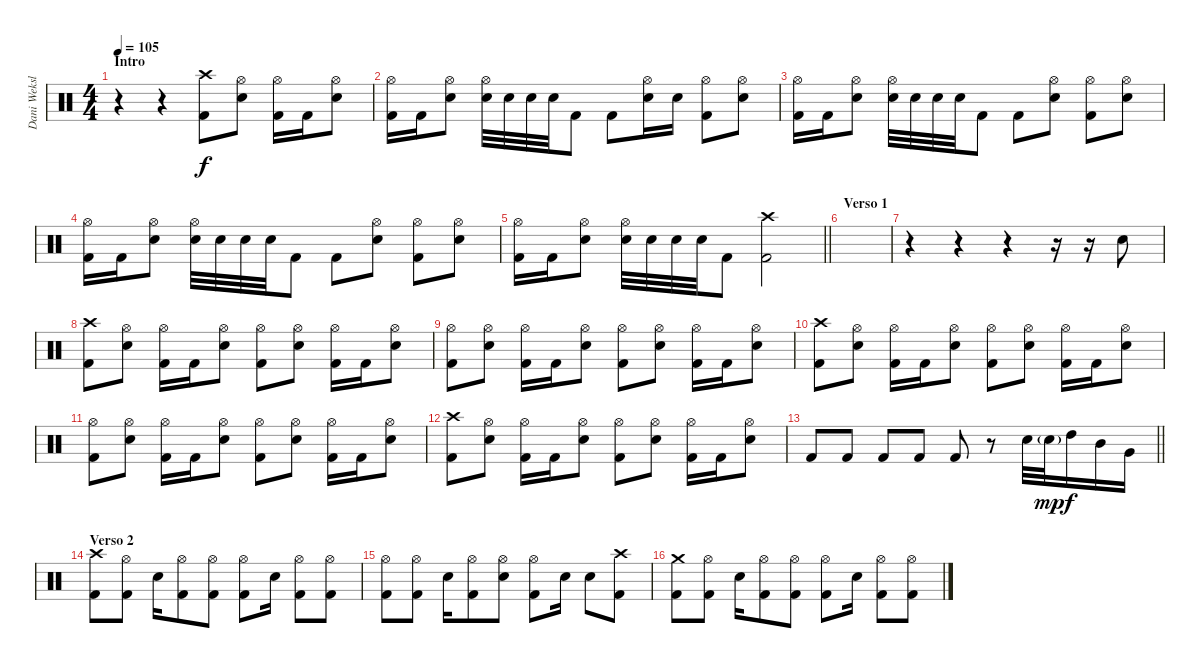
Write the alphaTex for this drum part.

\track ("Dani Weksler" "Dani Weksl") {instrument percussion}
\staff {score}
\articulation defaults
\ts (4 4)
\section ("" "Intro")
\tempo 105
\clef neutral
\ks c
r.4{dy f} r.4 ("Crash high (hit)" "Kick (hit) 2").8 ("Hi-Hat (open)" "Electric Snare (hit)").8 ("Hi-Hat (open)" "Kick (hit) 2").16 "Kick (hit) 2".16 ("Hi-Hat (open)" "Electric Snare (hit)").8 |
("Hi-Hat (open)" "Kick (hit) 2").16 "Kick (hit) 2".16 ("Hi-Hat (open)" "Electric Snare (hit)").8 ("Hi-Hat (open)" "Electric Snare (hit)").32 "Electric Snare (hit)".32 "Electric Snare (hit)".32 "Electric Snare (hit)".32 "Kick (hit) 2".8 "Kick (hit) 2".8 ("Hi-Hat (open)" "Electric Snare (hit)").16 "Electric Snare (hit)".16 ("Hi-Hat (open)" "Kick (hit) 2").8 ("Hi-Hat (open)" "Electric Snare (hit)").8 |
("Hi-Hat (open)" "Kick (hit) 2").16 "Kick (hit) 2".16 ("Hi-Hat (open)" "Electric Snare (hit)").8 ("Hi-Hat (open)" "Electric Snare (hit)").32 "Electric Snare (hit)".32 "Electric Snare (hit)".32 "Electric Snare (hit)".32 "Kick (hit) 2".8 "Kick (hit) 2".8 ("Hi-Hat (open)" "Electric Snare (hit)").8 ("Hi-Hat (open)" "Kick (hit) 2").8 ("Hi-Hat (open)" "Electric Snare (hit)").8 |
("Hi-Hat (open)" "Kick (hit) 2").16 "Kick (hit) 2".16 ("Hi-Hat (open)" "Electric Snare (hit)").8 ("Hi-Hat (open)" "Electric Snare (hit)").32 "Electric Snare (hit)".32 "Electric Snare (hit)".32 "Electric Snare (hit)".32 "Kick (hit) 2".8 "Kick (hit) 2".8 ("Hi-Hat (open)" "Electric Snare (hit)").8 ("Hi-Hat (open)" "Kick (hit) 2").8 ("Hi-Hat (open)" "Electric Snare (hit)").8 |
\barLineRight lightlight
("Hi-Hat (open)" "Kick (hit) 2").16 "Kick (hit) 2".16 ("Hi-Hat (open)" "Electric Snare (hit)").8 ("Hi-Hat (open)" "Electric Snare (hit)").32 "Electric Snare (hit)".32 "Electric Snare (hit)".32 "Electric Snare (hit)".32 "Kick (hit) 2".8 ("Crash high (hit)" "Kick (hit) 2").2 |
\section ("" "Verso 1")
|
r.4 r.4 r.4 r.16 r.16 "Electric Snare (hit)".8 |
("Crash high (hit)" "Kick (hit) 2").8 ("Hi-Hat (open)" "Electric Snare (hit)").8 ("Hi-Hat (open)" "Kick (hit) 2").16 "Kick (hit) 2".16 ("Hi-Hat (open)" "Electric Snare (hit)").8 ("Hi-Hat (open)" "Kick (hit) 2").8 ("Hi-Hat (open)" "Electric Snare (hit)").8 ("Hi-Hat (open)" "Kick (hit) 2").16 "Kick (hit) 2".16 ("Hi-Hat (open)" "Electric Snare (hit)").8 |
("Hi-Hat (open)" "Kick (hit) 2").8 ("Hi-Hat (open)" "Electric Snare (hit)").8 ("Hi-Hat (open)" "Kick (hit) 2").16 "Kick (hit) 2".16 ("Hi-Hat (open)" "Electric Snare (hit)").8 ("Hi-Hat (open)" "Kick (hit) 2").8 ("Hi-Hat (open)" "Electric Snare (hit)").8 ("Hi-Hat (open)" "Kick (hit) 2").16 "Kick (hit) 2".16 ("Hi-Hat (open)" "Electric Snare (hit)").8 |
("Crash high (hit)" "Kick (hit) 2").8 ("Hi-Hat (open)" "Electric Snare (hit)").8 ("Hi-Hat (open)" "Kick (hit) 2").16 "Kick (hit) 2".16 ("Hi-Hat (open)" "Electric Snare (hit)").8 ("Hi-Hat (open)" "Kick (hit) 2").8 ("Hi-Hat (open)" "Electric Snare (hit)").8 ("Hi-Hat (open)" "Kick (hit) 2").16 "Kick (hit) 2".16 ("Hi-Hat (open)" "Electric Snare (hit)").8 |
("Hi-Hat (open)" "Kick (hit) 2").8 ("Hi-Hat (open)" "Electric Snare (hit)").8 ("Hi-Hat (open)" "Kick (hit) 2").16 "Kick (hit) 2".16 ("Hi-Hat (open)" "Electric Snare (hit)").8 ("Hi-Hat (open)" "Kick (hit) 2").8 ("Hi-Hat (open)" "Electric Snare (hit)").8 ("Hi-Hat (open)" "Kick (hit) 2").16 "Kick (hit) 2".16 ("Hi-Hat (open)" "Electric Snare (hit)").8 |
("Crash high (hit)" "Kick (hit) 2").8 ("Hi-Hat (open)" "Electric Snare (hit)").8 ("Hi-Hat (open)" "Kick (hit) 2").16 "Kick (hit) 2".16 ("Hi-Hat (open)" "Electric Snare (hit)").8 ("Hi-Hat (open)" "Kick (hit) 2").8 ("Hi-Hat (open)" "Electric Snare (hit)").8 ("Hi-Hat (open)" "Kick (hit) 2").16 "Kick (hit) 2".16 ("Hi-Hat (open)" "Electric Snare (hit)").8 |
\barLineRight lightlight "Kick (hit) 2".8 "Kick (hit) 2".8 "Kick (hit) 2".8 "Kick (hit) 2".8 "Kick (hit) 2".8
r.8 "Electric Snare (hit)".32 "Electric Snare (hit)"{g}.32{dy mp} "High Tom (hit)".16{dy f} "Mid Tom (hit)".16 "Very Low Tom (hit)".16 |
\section ("" "Verso 2")
("Crash high (hit)" "Kick (hit) 2").8 ("Hi-Hat (open)" "Kick (hit) 2").8 "Electric Snare (hit)".16 ("Hi-Hat (open)" "Kick (hit) 2").8 ("Hi-Hat (open)" "Kick (hit) 2").8 ("Hi-Hat (open)" "Kick (hit) 2").8 "Electric Snare (hit)".16 ("Hi-Hat (open)" "Kick (hit) 2").8 ("Hi-Hat (open)" "Kick (hit) 2").8 |
("Hi-Hat (open)" "Kick (hit) 2").8 ("Hi-Hat (open)" "Kick (hit) 2").8 "Electric Snare (hit)".16 ("Hi-Hat (open)" "Kick (hit) 2").8 ("Hi-Hat (open)" "Electric Snare (hit)").8 ("Hi-Hat (open)" "Kick (hit) 2").8 "Electric Snare (hit)".16 "Electric Snare (hit)".8 ("Crash high (hit)" "Kick (hit) 2").8 |
("Crash medium (hit)" "Kick (hit) 2").8 ("Hi-Hat (open)" "Kick (hit) 2").8 "Electric Snare (hit)".16 ("Hi-Hat (open)" "Kick (hit) 2").8 ("Hi-Hat (open)" "Kick (hit) 2").8 ("Hi-Hat (open)" "Kick (hit) 2").8 "Electric Snare (hit)".16 ("Hi-Hat (open)" "Kick (hit) 2").8 ("Hi-Hat (open)" "Kick (hit) 2").8
